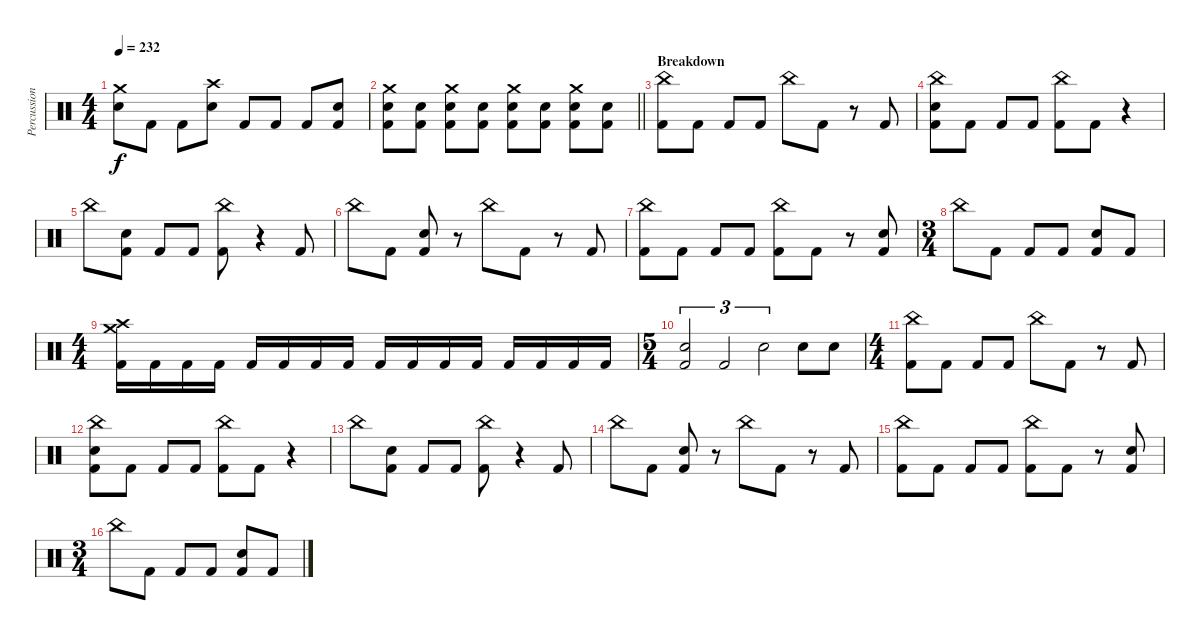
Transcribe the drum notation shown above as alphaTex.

\track ("Percussion" "Percussion") {instrument percussion}
\staff {score}
\articulation defaults
\ts (4 4)
\tempo 232
\clef neutral
\ks c
("Crash medium (hit)" "Electric Snare (hit)").8{dy f} "Kick (hit) 2".8 "Kick (hit) 2".8 ("Crash high (hit)" "Electric Snare (hit)").8 "Kick (hit) 2".8 "Kick (hit) 2".8 "Kick (hit) 2".8 ("Electric Snare (hit)" "Kick (hit) 2").8 |
\barLineRight lightlight
("Crash medium (hit)" "Electric Snare (hit)" "Kick (hit) 2").8 ("Electric Snare (hit)" "Kick (hit) 2").8 ("Crash medium (hit)" "Electric Snare (hit)" "Kick (hit) 2").8 ("Electric Snare (hit)" "Kick (hit) 2").8 ("Crash medium (hit)" "Electric Snare (hit)" "Kick (hit) 2").8 ("Electric Snare (hit)" "Kick (hit) 2").8 ("Crash medium (hit)" "Electric Snare (hit)" "Kick (hit) 2").8 ("Electric Snare (hit)" "Kick (hit) 2").8 |
\section ("" "Breakdown")
("China (hit)" "Kick (hit) 2").8 "Kick (hit) 2".8 "Kick (hit) 2".8 "Kick (hit) 2".8 "China (hit)".8 "Kick (hit) 2".8 r.8 "Kick (hit) 2".8 |
("China (hit)" "Electric Snare (hit)" "Kick (hit) 2").8 "Kick (hit) 2".8 "Kick (hit) 2".8 "Kick (hit) 2".8 ("China (hit)" "Kick (hit) 2").8 "Kick (hit) 2".8 r.4 |
"China (hit)".8 ("Electric Snare (hit)" "Kick (hit) 2").8 "Kick (hit) 2".8 "Kick (hit) 2".8 ("China (hit)" "Kick (hit) 2").8 r.4 "Kick (hit) 2".8 |
"China (hit)".8 "Kick (hit) 2".8 ("Electric Snare (hit)" "Kick (hit) 2").8 r.8 "China (hit)".8 "Kick (hit) 2".8 r.8 "Kick (hit) 2".8 |
("China (hit)" "Kick (hit) 2").8 "Kick (hit) 2".8 "Kick (hit) 2".8 "Kick (hit) 2".8 ("China (hit)" "Kick (hit) 2").8 "Kick (hit) 2".8 r.8 ("Electric Snare (hit)" "Kick (hit) 2").8 |
\ts (3 4)
"China (hit)".8 "Kick (hit) 2".8 "Kick (hit) 2".8 "Kick (hit) 2".8 ("Electric Snare (hit)" "Kick (hit) 2").8 "Kick (hit) 2".8 |
\ts (4 4)
("Crash medium (hit)" "Crash high (hit)" "Kick (hit) 2").16 "Kick (hit) 2".16 "Kick (hit) 2".16 "Kick (hit) 2".16 "Kick (hit) 2".16 "Kick (hit) 2".16 "Kick (hit) 2".16 "Kick (hit) 2".16 "Kick (hit) 2".16 "Kick (hit) 2".16 "Kick (hit) 2".16 "Kick (hit) 2".16 "Kick (hit) 2".16 "Kick (hit) 2".16 "Kick (hit) 2".16 "Kick (hit) 2".16 |
\ts (5 4)
("Electric Snare (hit)" "Kick (hit) 2").2{tu (3 2)} "Kick (hit) 2".2{tu (3 2)} "Electric Snare (hit)".2{tu (3 2)} "Electric Snare (hit)".8 "Electric Snare (hit)".8 |
\ts (4 4)
("China (hit)" "Kick (hit) 2").8 "Kick (hit) 2".8 "Kick (hit) 2".8 "Kick (hit) 2".8 "China (hit)".8 "Kick (hit) 2".8 r.8 "Kick (hit) 2".8 |
("China (hit)" "Electric Snare (hit)" "Kick (hit) 2").8 "Kick (hit) 2".8 "Kick (hit) 2".8 "Kick (hit) 2".8 ("China (hit)" "Kick (hit) 2").8 "Kick (hit) 2".8 r.4 |
"China (hit)".8 ("Electric Snare (hit)" "Kick (hit) 2").8 "Kick (hit) 2".8 "Kick (hit) 2".8 ("China (hit)" "Kick (hit) 2").8 r.4 "Kick (hit) 2".8 |
"China (hit)".8 "Kick (hit) 2".8 ("Electric Snare (hit)" "Kick (hit) 2").8 r.8 "China (hit)".8 "Kick (hit) 2".8 r.8 "Kick (hit) 2".8 |
("China (hit)" "Kick (hit) 2").8 "Kick (hit) 2".8 "Kick (hit) 2".8 "Kick (hit) 2".8 ("China (hit)" "Kick (hit) 2").8 "Kick (hit) 2".8 r.8 ("Electric Snare (hit)" "Kick (hit) 2").8 |
\ts (3 4)
"China (hit)".8 "Kick (hit) 2".8 "Kick (hit) 2".8 "Kick (hit) 2".8 ("Electric Snare (hit)" "Kick (hit) 2").8 "Kick (hit) 2".8
